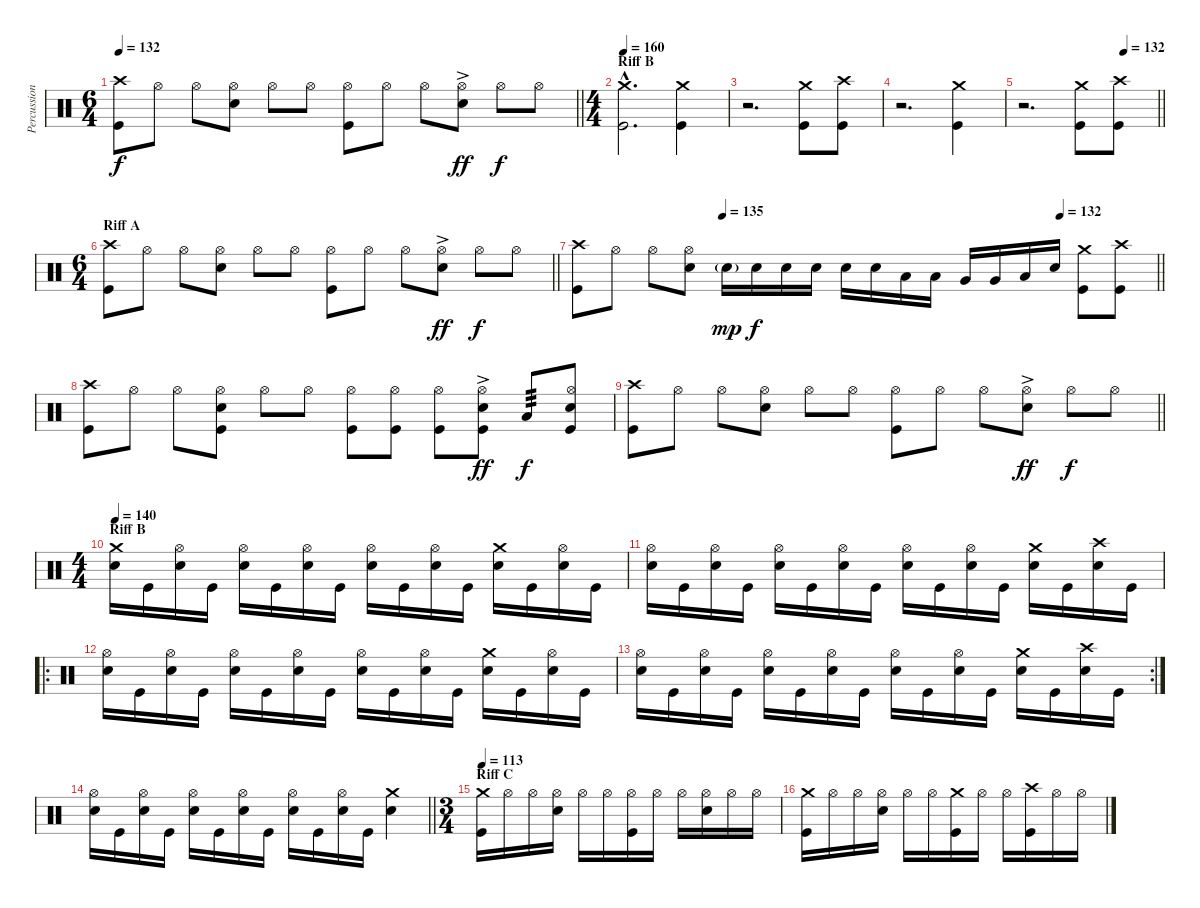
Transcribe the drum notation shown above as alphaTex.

\track ("Percussion" "Percussion") {instrument percussion}
\staff {score}
\articulation defaults
\ts (6 4)
\tempo 132
\clef neutral
\barLineRight lightlight
\ks c
("Kick (hit)" "Crash high (hit)").8{dy f} "Hi-Hat (open)".8 "Hi-Hat (open)".8 ("Hi-Hat (open)" "Snare (hit) 2").8 "Hi-Hat (open)".8 "Hi-Hat (open)".8 ("Kick (hit)" "Hi-Hat (open)").8 "Hi-Hat (open)".8 "Hi-Hat (open)".8 ("Hi-Hat (open)" "Snare (hit) 2"{ac}).8{dy ff} "Hi-Hat (open)".8{dy f} "Hi-Hat (open)".8 |
\ts (4 4)
\section ("" "Riff B")
\tempo 160
("Kick (hit)"{hac} "Crash medium (hit)"{hac}).2{d} ("Kick (hit)" "Crash medium (hit)").4 |
r.2{d} ("Kick (hit)" "Crash medium (hit)").8 ("Kick (hit)" "Crash high (hit)").8 |
r.2{d} ("Kick (hit)" "Crash medium (hit)").4 |
\tempo (132 0.75)
\barLineRight lightlight
r.2{d} ("Kick (hit)" "Crash medium (hit)").8 ("Kick (hit)" "Crash high (hit)").8 |
\ts (6 4)
\section ("" "Riff A")
\barLineRight lightlight
("Kick (hit)" "Crash high (hit)").8 "Hi-Hat (open)".8 "Hi-Hat (open)".8 ("Hi-Hat (open)" "Snare (hit) 2").8 "Hi-Hat (open)".8 "Hi-Hat (open)".8 ("Kick (hit)" "Hi-Hat (open)").8 "Hi-Hat (open)".8 "Hi-Hat (open)".8 ("Hi-Hat (open)" "Snare (hit) 2"{ac}).8{dy ff} "Hi-Hat (open)".8{dy f} "Hi-Hat (open)".8 |
\tempo (135 0.25)
\tempo (132 0.8333333333333334)
\barLineRight lightlight
("Kick (hit)" "Crash high (hit)").8 "Hi-Hat (open)".8 "Hi-Hat (open)".8 ("Hi-Hat (open)" "Snare (hit) 2").8 "Snare (hit) 2"{g}.16{dy mp} "Snare (hit) 2".16{dy f} "Snare (hit) 2".16 "Snare (hit) 2".16 "Snare (hit) 2".16 "Snare (hit) 2".16 "Low Tom (hit)".16 "Low Tom (hit)".16 "Very Low Tom (hit)".16 "Very Low Tom (hit)".16 "Low Floor Tom (hit)".16 "Snare (hit) 2".16 ("Kick (hit)" "Crash medium (hit)").8 ("Kick (hit)" "Crash high (hit)").8 |
("Kick (hit)" "Crash high (hit)").8 "Hi-Hat (open)".8 "Hi-Hat (open)".8 ("Kick (hit)" "Hi-Hat (open)" "Snare (hit) 2").8 "Hi-Hat (open)".8 "Hi-Hat (open)".8 ("Kick (hit)" "Hi-Hat (open)").8 ("Kick (hit)" "Hi-Hat (open)").8 ("Kick (hit)" "Hi-Hat (open)").8 ("Kick (hit)" "Hi-Hat (open)" "Snare (hit) 2"{ac}).8{dy ff} "Low Tom (hit)".8{tp 3 dy f} ("Kick (hit)" "Hi-Hat (open)" "Snare (hit) 2").8 |
\barLineRight lightlight
("Kick (hit)" "Crash high (hit)").8 "Hi-Hat (open)".8 "Hi-Hat (open)".8 ("Hi-Hat (open)" "Snare (hit) 2").8 "Hi-Hat (open)".8 "Hi-Hat (open)".8 ("Kick (hit)" "Hi-Hat (open)").8 "Hi-Hat (open)".8 "Hi-Hat (open)".8 ("Hi-Hat (open)" "Snare (hit) 2"{ac}).8{dy ff} "Hi-Hat (open)".8{dy f} "Hi-Hat (open)".8 |
\ts (4 4)
\section ("" "Riff B")
\tempo 140
("Snare (hit) 2" "Crash medium (hit)").16 "Kick (hit)".16 ("Snare (hit) 2" "Hi-Hat (open)").16 "Kick (hit)".16 ("Snare (hit) 2" "Hi-Hat (open)").16 "Kick (hit)".16 ("Snare (hit) 2" "Hi-Hat (open)").16 "Kick (hit)".16 ("Snare (hit) 2" "Hi-Hat (open)").16 "Kick (hit)".16 ("Snare (hit) 2" "Hi-Hat (open)").16 "Kick (hit)".16 ("Snare (hit) 2" "Crash medium (hit)").16 "Kick (hit)".16 ("Snare (hit) 2" "Hi-Hat (open)").16 "Kick (hit)".16 |
("Snare (hit) 2" "Hi-Hat (open)").16 "Kick (hit)".16 ("Snare (hit) 2" "Hi-Hat (open)").16 "Kick (hit)".16 ("Snare (hit) 2" "Hi-Hat (open)").16 "Kick (hit)".16 ("Snare (hit) 2" "Hi-Hat (open)").16 "Kick (hit)".16 ("Snare (hit) 2" "Hi-Hat (open)").16 "Kick (hit)".16 ("Snare (hit) 2" "Hi-Hat (open)").16 "Kick (hit)".16 ("Snare (hit) 2" "Crash medium (hit)").16 "Kick (hit)".16 ("Snare (hit) 2" "Crash high (hit)").16 "Kick (hit)".16 |
\ro
("Snare (hit) 2" "Hi-Hat (open)").16 "Kick (hit)".16 ("Snare (hit) 2" "Hi-Hat (open)").16 "Kick (hit)".16 ("Snare (hit) 2" "Hi-Hat (open)").16 "Kick (hit)".16 ("Snare (hit) 2" "Hi-Hat (open)").16 "Kick (hit)".16 ("Snare (hit) 2" "Hi-Hat (open)").16 "Kick (hit)".16 ("Snare (hit) 2" "Hi-Hat (open)").16 "Kick (hit)".16 ("Snare (hit) 2" "Crash medium (hit)").16 "Kick (hit)".16 ("Snare (hit) 2" "Hi-Hat (open)").16 "Kick (hit)".16 |
\rc 2
("Snare (hit) 2" "Hi-Hat (open)").16 "Kick (hit)".16 ("Snare (hit) 2" "Hi-Hat (open)").16 "Kick (hit)".16 ("Snare (hit) 2" "Hi-Hat (open)").16 "Kick (hit)".16 ("Snare (hit) 2" "Hi-Hat (open)").16 "Kick (hit)".16 ("Snare (hit) 2" "Hi-Hat (open)").16 "Kick (hit)".16 ("Snare (hit) 2" "Hi-Hat (open)").16 "Kick (hit)".16 ("Snare (hit) 2" "Crash medium (hit)").16 "Kick (hit)".16 ("Snare (hit) 2" "Crash high (hit)").16 "Kick (hit)".16 |
\barLineRight lightlight
("Snare (hit) 2" "Hi-Hat (open)").16 "Kick (hit)".16 ("Snare (hit) 2" "Hi-Hat (open)").16 "Kick (hit)".16 ("Snare (hit) 2" "Hi-Hat (open)").16 "Kick (hit)".16 ("Snare (hit) 2" "Hi-Hat (open)").16 "Kick (hit)".16 ("Snare (hit) 2" "Hi-Hat (open)").16 "Kick (hit)".16 ("Snare (hit) 2" "Hi-Hat (open)").16 "Kick (hit)".16 ("Snare (hit) 2" "Crash medium (hit)").4 |
\ts (3 4)
\section ("" "Riff C")
\tempo 113
("Crash medium (hit)" "Kick (hit)").16 "Hi-Hat (open)".16 "Hi-Hat (open)".16 ("Hi-Hat (open)" "Snare (hit) 2").16 "Hi-Hat (open)".16 "Hi-Hat (open)".16 ("Hi-Hat (open)" "Kick (hit)").16 "Hi-Hat (open)".16 "Hi-Hat (open)".16 ("Hi-Hat (open)" "Snare (hit) 2").16 "Hi-Hat (open)".16 "Hi-Hat (open)".16 |
("Crash medium (hit)" "Kick (hit)").16 "Hi-Hat (open)".16 "Hi-Hat (open)".16 ("Hi-Hat (open)" "Snare (hit) 2").16 "Hi-Hat (open)".16 "Hi-Hat (open)".16 ("Crash medium (hit)" "Kick (hit)").16 "Hi-Hat (open)".16 "Hi-Hat (open)".16 ("Crash high (hit)" "Kick (hit)").16 "Hi-Hat (open)".16 "Hi-Hat (open)".16
